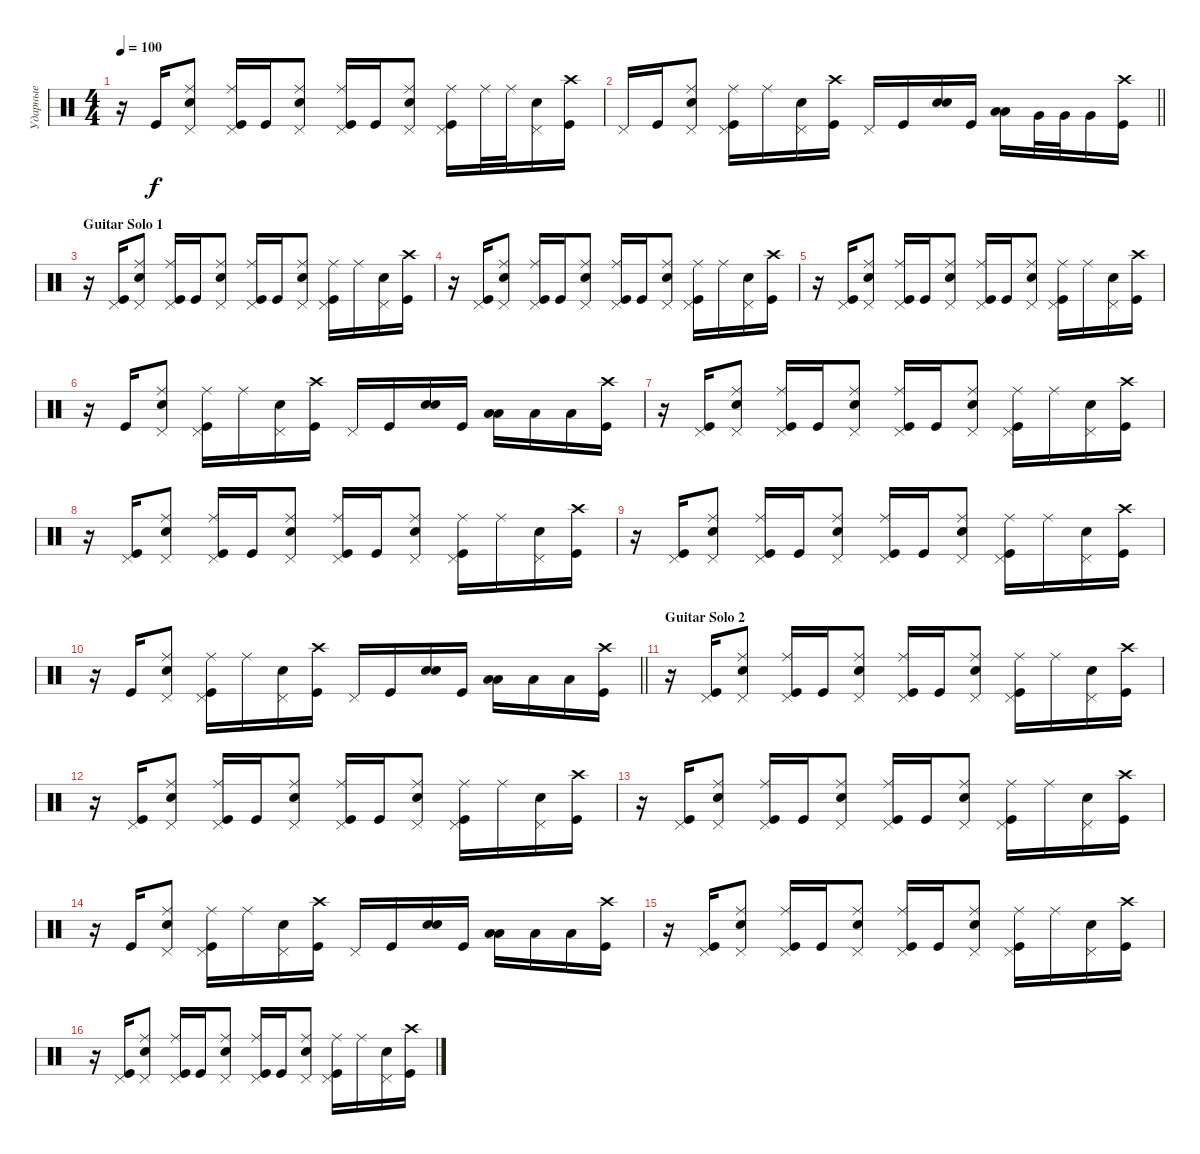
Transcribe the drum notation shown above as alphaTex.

\track ("Ударные" "Ударные") {instrument percussion}
\staff {score}
\articulation defaults
\ts (4 4)
\tempo 100
\clef neutral
\ks aminor
r.16{dy f} "Kick (hit)".16 ("Pedal Hi-Hat (hit)" "Snare (hit) 2" "Ride (middle)").8 ("Pedal Hi-Hat (hit)" "Kick (hit)" "Ride (middle)").16 "Kick (hit)".16 ("Snare (hit) 2" "Ride (middle)" "Pedal Hi-Hat (hit)").8 ("Kick (hit)" "Ride (middle)" "Pedal Hi-Hat (hit)").16 "Kick (hit)".16 ("Snare (hit) 2" "Ride (middle)" "Pedal Hi-Hat (hit)").8 ("Kick (hit)" "Ride (middle)" "Pedal Hi-Hat (hit)").16 "Ride (middle)".32 "Ride (middle)".32 ("Snare (hit) 2" "Pedal Hi-Hat (hit)").16 ("Kick (hit)" "Crash high (hit)").16 |
\barLineRight lightlight "Pedal Hi-Hat (hit)".16 "Kick (hit)".16
("Ride (middle)" "Snare (hit) 2" "Pedal Hi-Hat (hit)").8 ("Ride (middle)" "Kick (hit)" "Pedal Hi-Hat (hit)").16 "Ride (middle)".16 ("Snare (hit) 2" "Pedal Hi-Hat (hit)").16 ("Kick (hit)" "Crash high (hit)").16 "Pedal Hi-Hat (hit)".16 "Kick (hit)".16 ("Snare (hit) 2" "Snare (hit) 2").16{bd 240} "Kick (hit)".16 ("Low Tom (hit)" "Low Tom (hit)").16{bd 240} "Very Low Tom (hit)".32 "Very Low Tom (hit)".32 "Very Low Tom (hit)".16 ("Kick (hit)" "Crash high (hit)").16 |
\section ("" "Guitar Solo 1")
r.16 ("Kick (hit)" "Pedal Hi-Hat (hit)").16 ("Ride (middle)" "Snare (hit) 2" "Pedal Hi-Hat (hit)").8 ("Ride (middle)" "Kick (hit)" "Pedal Hi-Hat (hit)").16 "Kick (hit)".16 ("Snare (hit) 2" "Ride (middle)" "Pedal Hi-Hat (hit)").8 ("Kick (hit)" "Ride (middle)" "Pedal Hi-Hat (hit)").16 "Kick (hit)".16 ("Snare (hit) 2" "Ride (middle)" "Pedal Hi-Hat (hit)").8 ("Kick (hit)" "Ride (middle)" "Pedal Hi-Hat (hit)").16 "Ride (middle)".16 ("Snare (hit) 2" "Pedal Hi-Hat (hit)").16 ("Kick (hit)" "Crash high (hit)").16 |
r.16 ("Kick (hit)" "Pedal Hi-Hat (hit)").16 ("Ride (middle)" "Snare (hit) 2" "Pedal Hi-Hat (hit)").8 ("Ride (middle)" "Kick (hit)" "Pedal Hi-Hat (hit)").16 "Kick (hit)".16 ("Snare (hit) 2" "Ride (middle)" "Pedal Hi-Hat (hit)").8 ("Kick (hit)" "Ride (middle)" "Pedal Hi-Hat (hit)").16 "Kick (hit)".16 ("Snare (hit) 2" "Ride (middle)" "Pedal Hi-Hat (hit)").8 ("Kick (hit)" "Ride (middle)" "Pedal Hi-Hat (hit)").16 "Ride (middle)".16 ("Snare (hit) 2" "Pedal Hi-Hat (hit)").16 ("Kick (hit)" "Crash high (hit)").16 |
r.16 ("Kick (hit)" "Pedal Hi-Hat (hit)").16 ("Ride (middle)" "Snare (hit) 2" "Pedal Hi-Hat (hit)").8 ("Ride (middle)" "Kick (hit)" "Pedal Hi-Hat (hit)").16 "Kick (hit)".16 ("Snare (hit) 2" "Ride (middle)" "Pedal Hi-Hat (hit)").8 ("Kick (hit)" "Ride (middle)" "Pedal Hi-Hat (hit)").16 "Kick (hit)".16 ("Snare (hit) 2" "Ride (middle)" "Pedal Hi-Hat (hit)").8 ("Kick (hit)" "Ride (middle)" "Pedal Hi-Hat (hit)").16 "Ride (middle)".16 ("Snare (hit) 2" "Pedal Hi-Hat (hit)").16 ("Kick (hit)" "Crash high (hit)").16 |
r.16 "Kick (hit)".16 ("Pedal Hi-Hat (hit)" "Snare (hit) 2" "Ride (middle)").8 ("Ride (middle)" "Kick (hit)" "Pedal Hi-Hat (hit)").16 "Ride (middle)".16 ("Snare (hit) 2" "Pedal Hi-Hat (hit)").16 ("Kick (hit)" "Crash high (hit)").16 "Pedal Hi-Hat (hit)".16 "Kick (hit)".16 ("Snare (hit) 2" "Snare (hit) 2").16{bd 240} "Kick (hit)".16 ("Low Tom (hit)" "Low Tom (hit)").16{bd 240} "Low Tom (hit)".16 "Low Tom (hit)".16 ("Kick (hit)" "Crash high (hit)").16 |
r.16 ("Kick (hit)" "Pedal Hi-Hat (hit)").16 ("Ride (middle)" "Snare (hit) 2" "Pedal Hi-Hat (hit)").8 ("Ride (middle)" "Kick (hit)" "Pedal Hi-Hat (hit)").16 "Kick (hit)".16 ("Snare (hit) 2" "Ride (middle)" "Pedal Hi-Hat (hit)").8 ("Kick (hit)" "Ride (middle)" "Pedal Hi-Hat (hit)").16 "Kick (hit)".16 ("Snare (hit) 2" "Ride (middle)" "Pedal Hi-Hat (hit)").8 ("Kick (hit)" "Ride (middle)" "Pedal Hi-Hat (hit)").16 "Ride (middle)".16 ("Snare (hit) 2" "Pedal Hi-Hat (hit)").16 ("Kick (hit)" "Crash high (hit)").16 |
r.16 ("Kick (hit)" "Pedal Hi-Hat (hit)").16 ("Ride (middle)" "Snare (hit) 2" "Pedal Hi-Hat (hit)").8 ("Ride (middle)" "Kick (hit)" "Pedal Hi-Hat (hit)").16 "Kick (hit)".16 ("Snare (hit) 2" "Ride (middle)" "Pedal Hi-Hat (hit)").8 ("Kick (hit)" "Ride (middle)" "Pedal Hi-Hat (hit)").16 "Kick (hit)".16 ("Snare (hit) 2" "Ride (middle)" "Pedal Hi-Hat (hit)").8 ("Kick (hit)" "Ride (middle)" "Pedal Hi-Hat (hit)").16 "Ride (middle)".16 ("Snare (hit) 2" "Pedal Hi-Hat (hit)").16 ("Kick (hit)" "Crash high (hit)").16 |
r.16 ("Kick (hit)" "Pedal Hi-Hat (hit)").16 ("Ride (middle)" "Snare (hit) 2" "Pedal Hi-Hat (hit)").8 ("Ride (middle)" "Kick (hit)" "Pedal Hi-Hat (hit)").16 "Kick (hit)".16 ("Snare (hit) 2" "Ride (middle)" "Pedal Hi-Hat (hit)").8 ("Kick (hit)" "Ride (middle)" "Pedal Hi-Hat (hit)").16 "Kick (hit)".16 ("Snare (hit) 2" "Ride (middle)" "Pedal Hi-Hat (hit)").8 ("Kick (hit)" "Ride (middle)" "Pedal Hi-Hat (hit)").16 "Ride (middle)".16 ("Snare (hit) 2" "Pedal Hi-Hat (hit)").16 ("Kick (hit)" "Crash high (hit)").16 |
\barLineRight lightlight
r.16 "Kick (hit)".16 ("Pedal Hi-Hat (hit)" "Snare (hit) 2" "Ride (middle)").8 ("Ride (middle)" "Kick (hit)" "Pedal Hi-Hat (hit)").16 "Ride (middle)".16 ("Snare (hit) 2" "Pedal Hi-Hat (hit)").16 ("Kick (hit)" "Crash high (hit)").16 "Pedal Hi-Hat (hit)".16 "Kick (hit)".16 ("Snare (hit) 2" "Snare (hit) 2").16{bd 240} "Kick (hit)".16 ("Low Tom (hit)" "Low Tom (hit)").16{bd 240} "Low Tom (hit)".16 "Low Tom (hit)".16 ("Kick (hit)" "Crash high (hit)").16 |
\section ("" "Guitar Solo 2")
r.16 ("Kick (hit)" "Pedal Hi-Hat (hit)").16 ("Ride (middle)" "Snare (hit) 2" "Pedal Hi-Hat (hit)").8 ("Ride (middle)" "Kick (hit)" "Pedal Hi-Hat (hit)").16 "Kick (hit)".16 ("Snare (hit) 2" "Ride (middle)" "Pedal Hi-Hat (hit)").8 ("Kick (hit)" "Ride (middle)" "Pedal Hi-Hat (hit)").16 "Kick (hit)".16 ("Snare (hit) 2" "Ride (middle)" "Pedal Hi-Hat (hit)").8 ("Kick (hit)" "Ride (middle)" "Pedal Hi-Hat (hit)").16 "Ride (middle)".16 ("Snare (hit) 2" "Pedal Hi-Hat (hit)").16 ("Kick (hit)" "Crash high (hit)").16 |
r.16 ("Kick (hit)" "Pedal Hi-Hat (hit)").16 ("Ride (middle)" "Snare (hit) 2" "Pedal Hi-Hat (hit)").8 ("Ride (middle)" "Kick (hit)" "Pedal Hi-Hat (hit)").16 "Kick (hit)".16 ("Snare (hit) 2" "Ride (middle)" "Pedal Hi-Hat (hit)").8 ("Kick (hit)" "Ride (middle)" "Pedal Hi-Hat (hit)").16 "Kick (hit)".16 ("Snare (hit) 2" "Ride (middle)" "Pedal Hi-Hat (hit)").8 ("Kick (hit)" "Ride (middle)" "Pedal Hi-Hat (hit)").16 "Ride (middle)".16 ("Snare (hit) 2" "Pedal Hi-Hat (hit)").16 ("Kick (hit)" "Crash high (hit)").16 |
r.16 ("Kick (hit)" "Pedal Hi-Hat (hit)").16 ("Ride (middle)" "Snare (hit) 2" "Pedal Hi-Hat (hit)").8 ("Ride (middle)" "Kick (hit)" "Pedal Hi-Hat (hit)").16 "Kick (hit)".16 ("Snare (hit) 2" "Ride (middle)" "Pedal Hi-Hat (hit)").8 ("Kick (hit)" "Ride (middle)" "Pedal Hi-Hat (hit)").16 "Kick (hit)".16 ("Snare (hit) 2" "Ride (middle)" "Pedal Hi-Hat (hit)").8 ("Kick (hit)" "Ride (middle)" "Pedal Hi-Hat (hit)").16 "Ride (middle)".16 ("Snare (hit) 2" "Pedal Hi-Hat (hit)").16 ("Kick (hit)" "Crash high (hit)").16 |
r.16 "Kick (hit)".16 ("Pedal Hi-Hat (hit)" "Snare (hit) 2" "Ride (middle)").8 ("Ride (middle)" "Kick (hit)" "Pedal Hi-Hat (hit)").16 "Ride (middle)".16 ("Snare (hit) 2" "Pedal Hi-Hat (hit)").16 ("Kick (hit)" "Crash high (hit)").16 "Pedal Hi-Hat (hit)".16 "Kick (hit)".16 ("Snare (hit) 2" "Snare (hit) 2").16{bd 240} "Kick (hit)".16 ("Low Tom (hit)" "Low Tom (hit)").16{bd 240} "Low Tom (hit)".16 "Low Tom (hit)".16 ("Kick (hit)" "Crash high (hit)").16 |
r.16 ("Kick (hit)" "Pedal Hi-Hat (hit)").16 ("Ride (middle)" "Snare (hit) 2" "Pedal Hi-Hat (hit)").8 ("Ride (middle)" "Kick (hit)" "Pedal Hi-Hat (hit)").16 "Kick (hit)".16 ("Snare (hit) 2" "Ride (middle)" "Pedal Hi-Hat (hit)").8 ("Kick (hit)" "Ride (middle)" "Pedal Hi-Hat (hit)").16 "Kick (hit)".16 ("Snare (hit) 2" "Ride (middle)" "Pedal Hi-Hat (hit)").8 ("Kick (hit)" "Ride (middle)" "Pedal Hi-Hat (hit)").16 "Ride (middle)".16 ("Snare (hit) 2" "Pedal Hi-Hat (hit)").16 ("Kick (hit)" "Crash high (hit)").16 |
r.16 ("Kick (hit)" "Pedal Hi-Hat (hit)").16 ("Ride (middle)" "Snare (hit) 2" "Pedal Hi-Hat (hit)").8 ("Ride (middle)" "Kick (hit)" "Pedal Hi-Hat (hit)").16 "Kick (hit)".16 ("Snare (hit) 2" "Ride (middle)" "Pedal Hi-Hat (hit)").8 ("Kick (hit)" "Ride (middle)" "Pedal Hi-Hat (hit)").16 "Kick (hit)".16 ("Snare (hit) 2" "Ride (middle)" "Pedal Hi-Hat (hit)").8 ("Kick (hit)" "Ride (middle)" "Pedal Hi-Hat (hit)").16 "Ride (middle)".16 ("Snare (hit) 2" "Pedal Hi-Hat (hit)").16 ("Kick (hit)" "Crash high (hit)").16
